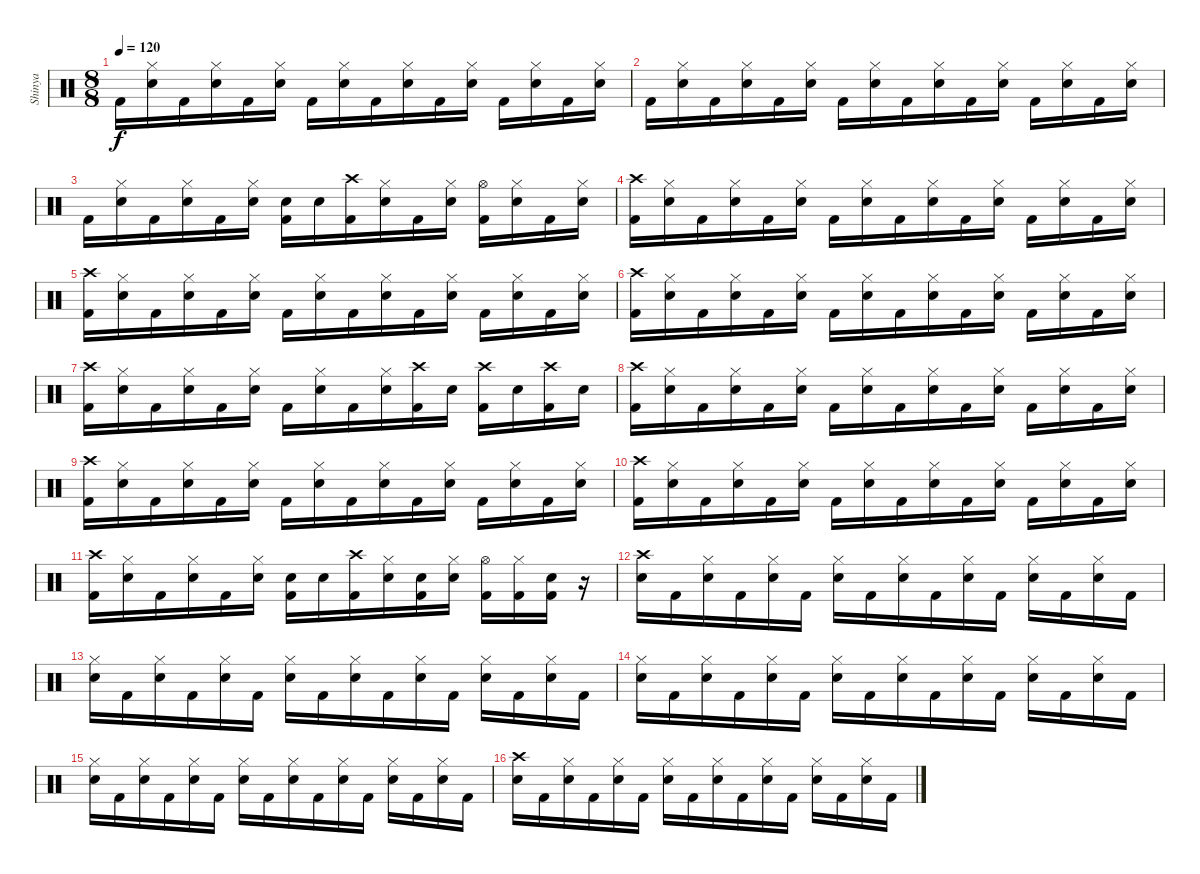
\track ("Shinya" "Shinya") {instrument percussion}
\staff {score}
\articulation defaults
\ts (8 8)
\tempo 120
\clef neutral
\ks c "Kick (hit) 2".16{dy f}
("Hi-Hat (closed)" "Snare (hit) 2").16 "Kick (hit) 2".16 ("Hi-Hat (closed)" "Snare (hit) 2").16 "Kick (hit) 2".16 ("Hi-Hat (closed)" "Snare (hit) 2").16 "Kick (hit) 2".16 ("Hi-Hat (closed)" "Snare (hit) 2").16 "Kick (hit) 2".16 ("Hi-Hat (closed)" "Snare (hit) 2").16 "Kick (hit) 2".16 ("Hi-Hat (closed)" "Snare (hit) 2").16 "Kick (hit) 2".16 ("Hi-Hat (closed)" "Snare (hit) 2").16 "Kick (hit) 2".16 ("Hi-Hat (closed)" "Snare (hit) 2").16 |
"Kick (hit) 2".16 ("Hi-Hat (closed)" "Snare (hit) 2").16 "Kick (hit) 2".16 ("Hi-Hat (closed)" "Snare (hit) 2").16 "Kick (hit) 2".16 ("Hi-Hat (closed)" "Snare (hit) 2").16 "Kick (hit) 2".16 ("Hi-Hat (closed)" "Snare (hit) 2").16 "Kick (hit) 2".16 ("Hi-Hat (closed)" "Snare (hit) 2").16 "Kick (hit) 2".16 ("Hi-Hat (closed)" "Snare (hit) 2").16 "Kick (hit) 2".16 ("Hi-Hat (closed)" "Snare (hit) 2").16 "Kick (hit) 2".16 ("Hi-Hat (closed)" "Snare (hit) 2").16 |
"Kick (hit) 2".16 ("Hi-Hat (closed)" "Snare (hit) 2").16 "Kick (hit) 2".16 ("Hi-Hat (closed)" "Snare (hit) 2").16 "Kick (hit) 2".16 ("Hi-Hat (closed)" "Snare (hit) 2").16 ("Snare (hit) 2" "Kick (hit) 2").16 "Snare (hit) 2".16 ("Crash high (hit)" "Kick (hit) 2").16 ("Hi-Hat (closed)" "Snare (hit) 2").16 "Kick (hit) 2".16 ("Hi-Hat (closed)" "Snare (hit) 2").16 ("Hi-Hat (open)" "Kick (hit) 2").16 ("Hi-Hat (closed)" "Snare (hit) 2").16 "Kick (hit) 2".16 ("Hi-Hat (closed)" "Snare (hit) 2").16 |
("Crash high (hit)" "Kick (hit) 2").16 ("Hi-Hat (closed)" "Snare (hit) 2").16 "Kick (hit) 2".16 ("Hi-Hat (closed)" "Snare (hit) 2").16 "Kick (hit) 2".16 ("Hi-Hat (closed)" "Snare (hit) 2").16 "Kick (hit) 2".16 ("Hi-Hat (closed)" "Snare (hit) 2").16 "Kick (hit) 2".16 ("Hi-Hat (closed)" "Snare (hit) 2").16 "Kick (hit) 2".16 ("Hi-Hat (closed)" "Snare (hit) 2").16 "Kick (hit) 2".16 ("Hi-Hat (closed)" "Snare (hit) 2").16 "Kick (hit) 2".16 ("Hi-Hat (closed)" "Snare (hit) 2").16 |
("Crash high (hit)" "Kick (hit) 2").16 ("Hi-Hat (closed)" "Snare (hit) 2").16 "Kick (hit) 2".16 ("Hi-Hat (closed)" "Snare (hit) 2").16 "Kick (hit) 2".16 ("Hi-Hat (closed)" "Snare (hit) 2").16 "Kick (hit) 2".16 ("Hi-Hat (closed)" "Snare (hit) 2").16 "Kick (hit) 2".16 ("Hi-Hat (closed)" "Snare (hit) 2").16 "Kick (hit) 2".16 ("Hi-Hat (closed)" "Snare (hit) 2").16 "Kick (hit) 2".16 ("Hi-Hat (closed)" "Snare (hit) 2").16 "Kick (hit) 2".16 ("Hi-Hat (closed)" "Snare (hit) 2").16 |
("Crash high (hit)" "Kick (hit) 2").16 ("Hi-Hat (closed)" "Snare (hit) 2").16 "Kick (hit) 2".16 ("Hi-Hat (closed)" "Snare (hit) 2").16 "Kick (hit) 2".16 ("Hi-Hat (closed)" "Snare (hit) 2").16 "Kick (hit) 2".16 ("Hi-Hat (closed)" "Snare (hit) 2").16 "Kick (hit) 2".16 ("Hi-Hat (closed)" "Snare (hit) 2").16 "Kick (hit) 2".16 ("Hi-Hat (closed)" "Snare (hit) 2").16 "Kick (hit) 2".16 ("Hi-Hat (closed)" "Snare (hit) 2").16 "Kick (hit) 2".16 ("Hi-Hat (closed)" "Snare (hit) 2").16 |
("Crash high (hit)" "Kick (hit) 2").16 ("Hi-Hat (closed)" "Snare (hit) 2").16 "Kick (hit) 2".16 ("Hi-Hat (closed)" "Snare (hit) 2").16 "Kick (hit) 2".16 ("Hi-Hat (closed)" "Snare (hit) 2").16 "Kick (hit) 2".16 ("Hi-Hat (closed)" "Snare (hit) 2").16 "Kick (hit) 2".16 ("Hi-Hat (closed)" "Snare (hit) 2").16 ("Crash high (hit)" "Kick (hit) 2").16 "Snare (hit) 2".16 ("Crash high (hit)" "Kick (hit) 2").16 "Snare (hit) 2".16 ("Crash high (hit)" "Kick (hit) 2").16 "Snare (hit) 2".16 |
("Crash high (hit)" "Kick (hit) 2").16 ("Hi-Hat (closed)" "Snare (hit) 2").16 "Kick (hit) 2".16 ("Hi-Hat (closed)" "Snare (hit) 2").16 "Kick (hit) 2".16 ("Hi-Hat (closed)" "Snare (hit) 2").16 "Kick (hit) 2".16 ("Hi-Hat (closed)" "Snare (hit) 2").16 "Kick (hit) 2".16 ("Hi-Hat (closed)" "Snare (hit) 2").16 "Kick (hit) 2".16 ("Hi-Hat (closed)" "Snare (hit) 2").16 "Kick (hit) 2".16 ("Hi-Hat (closed)" "Snare (hit) 2").16 "Kick (hit) 2".16 ("Hi-Hat (closed)" "Snare (hit) 2").16 |
("Crash high (hit)" "Kick (hit) 2").16 ("Hi-Hat (closed)" "Snare (hit) 2").16 "Kick (hit) 2".16 ("Hi-Hat (closed)" "Snare (hit) 2").16 "Kick (hit) 2".16 ("Hi-Hat (closed)" "Snare (hit) 2").16 "Kick (hit) 2".16 ("Hi-Hat (closed)" "Snare (hit) 2").16 "Kick (hit) 2".16 ("Hi-Hat (closed)" "Snare (hit) 2").16 "Kick (hit) 2".16 ("Hi-Hat (closed)" "Snare (hit) 2").16 "Kick (hit) 2".16 ("Hi-Hat (closed)" "Snare (hit) 2").16 "Kick (hit) 2".16 ("Hi-Hat (closed)" "Snare (hit) 2").16 |
("Crash high (hit)" "Kick (hit) 2").16 ("Hi-Hat (closed)" "Snare (hit) 2").16 "Kick (hit) 2".16 ("Hi-Hat (closed)" "Snare (hit) 2").16 "Kick (hit) 2".16 ("Hi-Hat (closed)" "Snare (hit) 2").16 "Kick (hit) 2".16 ("Hi-Hat (closed)" "Snare (hit) 2").16 "Kick (hit) 2".16 ("Hi-Hat (closed)" "Snare (hit) 2").16 "Kick (hit) 2".16 ("Hi-Hat (closed)" "Snare (hit) 2").16 "Kick (hit) 2".16 ("Hi-Hat (closed)" "Snare (hit) 2").16 "Kick (hit) 2".16 ("Hi-Hat (closed)" "Snare (hit) 2").16 |
("Crash high (hit)" "Kick (hit) 2").16 ("Hi-Hat (closed)" "Snare (hit) 2").16 "Kick (hit) 2".16 ("Hi-Hat (closed)" "Snare (hit) 2").16 "Kick (hit) 2".16 ("Hi-Hat (closed)" "Snare (hit) 2").16 ("Snare (hit) 2" "Kick (hit) 2").16 "Snare (hit) 2".16 ("Crash high (hit)" "Kick (hit) 2").16 ("Hi-Hat (closed)" "Snare (hit) 2").16 ("Snare (hit) 2" "Kick (hit) 2").16 ("Hi-Hat (closed)" "Snare (hit) 2").16 ("Hi-Hat (open)" "Kick (hit) 2").16 ("Hi-Hat (closed)" "Kick (hit) 2").16 ("Snare (hit) 2" "Kick (hit) 2").16 r.16 |
("Crash high (hit)" "Snare (hit) 2").16 "Kick (hit) 2".16 ("Hi-Hat (closed)" "Snare (hit) 2").16 "Kick (hit) 2".16 ("Hi-Hat (closed)" "Snare (hit) 2").16 "Kick (hit) 2".16 ("Hi-Hat (closed)" "Snare (hit) 2").16 "Kick (hit) 2".16 ("Hi-Hat (closed)" "Snare (hit) 2").16 "Kick (hit) 2".16 ("Hi-Hat (closed)" "Snare (hit) 2").16 "Kick (hit) 2".16 ("Hi-Hat (closed)" "Snare (hit) 2").16 "Kick (hit) 2".16 ("Hi-Hat (closed)" "Snare (hit) 2").16 "Kick (hit) 2".16 |
("Hi-Hat (closed)" "Snare (hit) 2").16 "Kick (hit) 2".16 ("Hi-Hat (closed)" "Snare (hit) 2").16 "Kick (hit) 2".16 ("Hi-Hat (closed)" "Snare (hit) 2").16 "Kick (hit) 2".16 ("Hi-Hat (closed)" "Snare (hit) 2").16 "Kick (hit) 2".16 ("Hi-Hat (closed)" "Snare (hit) 2").16 "Kick (hit) 2".16 ("Hi-Hat (closed)" "Snare (hit) 2").16 "Kick (hit) 2".16 ("Hi-Hat (closed)" "Snare (hit) 2").16 "Kick (hit) 2".16 ("Hi-Hat (closed)" "Snare (hit) 2").16 "Kick (hit) 2".16 |
("Hi-Hat (closed)" "Snare (hit) 2").16 "Kick (hit) 2".16 ("Hi-Hat (closed)" "Snare (hit) 2").16 "Kick (hit) 2".16 ("Hi-Hat (closed)" "Snare (hit) 2").16 "Kick (hit) 2".16 ("Hi-Hat (closed)" "Snare (hit) 2").16 "Kick (hit) 2".16 ("Hi-Hat (closed)" "Snare (hit) 2").16 "Kick (hit) 2".16 ("Hi-Hat (closed)" "Snare (hit) 2").16 "Kick (hit) 2".16 ("Hi-Hat (closed)" "Snare (hit) 2").16 "Kick (hit) 2".16 ("Hi-Hat (closed)" "Snare (hit) 2").16 "Kick (hit) 2".16 |
("Hi-Hat (closed)" "Snare (hit) 2").16 "Kick (hit) 2".16 ("Hi-Hat (closed)" "Snare (hit) 2").16 "Kick (hit) 2".16 ("Hi-Hat (closed)" "Snare (hit) 2").16 "Kick (hit) 2".16 ("Hi-Hat (closed)" "Snare (hit) 2").16 "Kick (hit) 2".16 ("Hi-Hat (closed)" "Snare (hit) 2").16 "Kick (hit) 2".16 ("Hi-Hat (closed)" "Snare (hit) 2").16 "Kick (hit) 2".16 ("Hi-Hat (closed)" "Snare (hit) 2").16 "Kick (hit) 2".16 ("Hi-Hat (closed)" "Snare (hit) 2").16 "Kick (hit) 2".16 |
("Crash high (hit)" "Snare (hit) 2").16 "Kick (hit) 2".16 ("Hi-Hat (closed)" "Snare (hit) 2").16 "Kick (hit) 2".16 ("Hi-Hat (closed)" "Snare (hit) 2").16 "Kick (hit) 2".16 ("Hi-Hat (closed)" "Snare (hit) 2").16 "Kick (hit) 2".16 ("Hi-Hat (closed)" "Snare (hit) 2").16 "Kick (hit) 2".16 ("Hi-Hat (closed)" "Snare (hit) 2").16 "Kick (hit) 2".16 ("Hi-Hat (closed)" "Snare (hit) 2").16 "Kick (hit) 2".16 ("Hi-Hat (closed)" "Snare (hit) 2").16 "Kick (hit) 2".16
